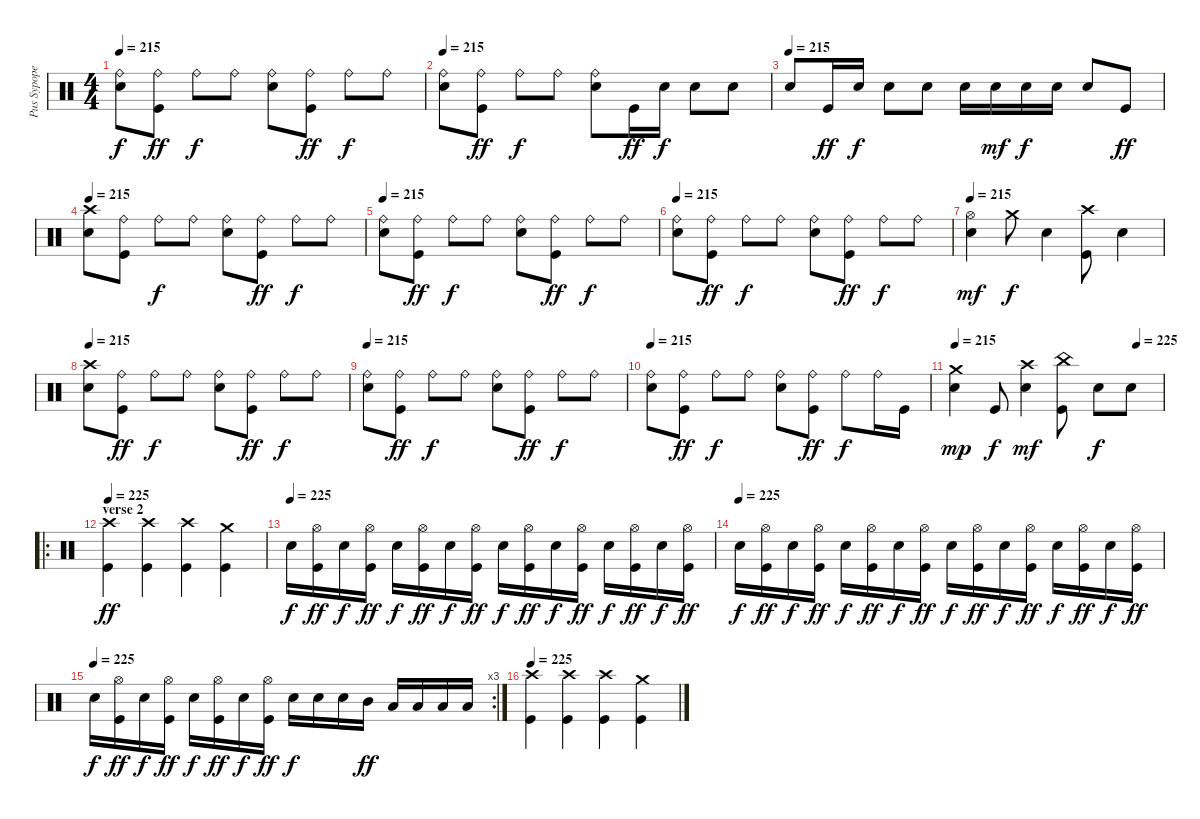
\track ("Pus Sypope" "Pus Sypope") {instrument percussion}
\staff {score}
\articulation defaults
\ts (4 4)
\tempo 215
\clef neutral
\ks c
("Ride (bell)" "Snare (hit) 2").8{dy f} ("Ride (bell)" "Kick (hit)").8{dy ff} "Ride (bell)".8{dy f} "Ride (bell)".8 ("Ride (bell)" "Snare (hit) 2").8 ("Ride (bell)" "Kick (hit)").8{dy ff} "Ride (bell)".8{dy f} "Ride (bell)".8 |
\tempo 215
("Ride (bell)" "Snare (hit) 2").8 ("Ride (bell)" "Kick (hit)").8{dy ff} "Ride (bell)".8{dy f} "Ride (bell)".8 ("Ride (bell)" "Snare (hit) 2").8 "Kick (hit)".16{dy ff} "Snare (hit) 2".16{dy f} "Snare (hit) 2".8 "Snare (hit) 2".8 |
\tempo (215)
"Snare (hit) 2".8 "Kick (hit)".16{dy ff} "Snare (hit) 2".16{dy f} "Snare (hit) 2".8 "Snare (hit) 2".8 "Snare (hit) 2".16 "Snare (hit) 2".16{dy mf} "Snare (hit) 2".16{dy f} "Snare (hit) 2".16 "Snare (hit) 2".8 "Kick (hit)".8{dy ff} |
\tempo 215
("Crash high (hit)" "Snare (hit) 2").8 ("Ride (bell)" "Kick (hit)").8 "Ride (bell)".8{dy f} "Ride (bell)".8 ("Ride (bell)" "Snare (hit) 2").8 ("Ride (bell)" "Kick (hit)").8{dy ff} "Ride (bell)".8{dy f} "Ride (bell)".8 |
\tempo 215
("Ride (bell)" "Snare (hit) 2").8 ("Ride (bell)" "Kick (hit)").8{dy ff} "Ride (bell)".8{dy f} "Ride (bell)".8 ("Ride (bell)" "Snare (hit) 2").8 ("Ride (bell)" "Kick (hit)").8{dy ff} "Ride (bell)".8{dy f} "Ride (bell)".8 |
\tempo 215
("Ride (bell)" "Snare (hit) 2").8 ("Ride (bell)" "Kick (hit)").8{dy ff} "Ride (bell)".8{dy f} "Ride (bell)".8 ("Ride (bell)" "Snare (hit) 2").8 ("Ride (bell)" "Kick (hit)").8{dy ff} "Ride (bell)".8{dy f} "Ride (bell)".8 |
\tempo 215
("Hi-Hat (open)" "Snare (hit) 2").4{dy mf} "Crash medium (hit)".8{dy f} "Snare (hit) 2".4 ("Crash high (hit)" "Kick (hit)").8 "Snare (hit) 2".4 |
\tempo 215
("Crash high (hit)" "Snare (hit) 2").8 ("Ride (bell)" "Kick (hit)").8{dy ff} "Ride (bell)".8{dy f} "Ride (bell)".8 ("Ride (bell)" "Snare (hit) 2").8 ("Ride (bell)" "Kick (hit)").8{dy ff} "Ride (bell)".8{dy f} "Ride (bell)".8 |
\tempo 215
("Ride (bell)" "Snare (hit) 2").8 ("Ride (bell)" "Kick (hit)").8{dy ff} "Ride (bell)".8{dy f} "Ride (bell)".8 ("Ride (bell)" "Snare (hit) 2").8 ("Ride (bell)" "Kick (hit)").8{dy ff} "Ride (bell)".8{dy f} "Ride (bell)".8 |
\tempo 215
("Ride (bell)" "Snare (hit) 2").8 ("Ride (bell)" "Kick (hit)").8{dy ff} "Ride (bell)".8{dy f} "Ride (bell)".8 ("Ride (bell)" "Snare (hit) 2").8 ("Ride (bell)" "Kick (hit)").8{dy ff} "Ride (bell)".8{dy f} "Ride (bell)".16 "Kick (hit)".16 |
\tempo 215
\tempo (225 0.875)
("Crash medium (hit)" "Snare (hit) 2").4{dy mp} "Kick (hit)".8{dy f} ("Crash high (hit)" "Snare (hit) 2").4{dy mf} ("China (hit)" "Kick (hit)").8 "Snare (hit) 2".8{dy f} "Snare (hit) 2".8 |
\ro
\section ("" "verse 2")
\tempo 225
("Crash high (hit)" "Kick (hit)").4{dy ff} ("Crash high (hit)" "Kick (hit)").4 ("Crash high (hit)" "Kick (hit)").4 ("Crash medium (hit)" "Kick (hit)").4 |
\tempo (225)
"Snare (hit) 2".16{dy f} ("Hi-Hat (open)" "Kick (hit)").16{dy ff} "Snare (hit) 2".16{dy f} ("Hi-Hat (open)" "Kick (hit)").16{dy ff} "Snare (hit) 2".16{dy f} ("Hi-Hat (open)" "Kick (hit)").16{dy ff} "Snare (hit) 2".16{dy f} ("Hi-Hat (open)" "Kick (hit)").16{dy ff} "Snare (hit) 2".16{dy f} ("Hi-Hat (open)" "Kick (hit)").16{dy ff} "Snare (hit) 2".16{dy f} ("Hi-Hat (open)" "Kick (hit)").16{dy ff} "Snare (hit) 2".16{dy f} ("Hi-Hat (open)" "Kick (hit)").16{dy ff} "Snare (hit) 2".16{dy f} ("Hi-Hat (open)" "Kick (hit)").16{dy ff} |
\tempo (225)
"Snare (hit) 2".16{dy f} ("Hi-Hat (open)" "Kick (hit)").16{dy ff} "Snare (hit) 2".16{dy f} ("Hi-Hat (open)" "Kick (hit)").16{dy ff} "Snare (hit) 2".16{dy f} ("Hi-Hat (open)" "Kick (hit)").16{dy ff} "Snare (hit) 2".16{dy f} ("Hi-Hat (open)" "Kick (hit)").16{dy ff} "Snare (hit) 2".16{dy f} ("Hi-Hat (open)" "Kick (hit)").16{dy ff} "Snare (hit) 2".16{dy f} ("Hi-Hat (open)" "Kick (hit)").16{dy ff} "Snare (hit) 2".16{dy f} ("Hi-Hat (open)" "Kick (hit)").16{dy ff} "Snare (hit) 2".16{dy f} ("Hi-Hat (open)" "Kick (hit)").16{dy ff} |
\rc 3
\tempo (225)
"Snare (hit) 2".16{dy f} ("Hi-Hat (open)" "Kick (hit)").16{dy ff} "Snare (hit) 2".16{dy f} ("Hi-Hat (open)" "Kick (hit)").16{dy ff} "Snare (hit) 2".16{dy f} ("Hi-Hat (open)" "Kick (hit)").16{dy ff} "Snare (hit) 2".16{dy f} ("Hi-Hat (open)" "Kick (hit)").16{dy ff} "Snare (hit) 2".16{dy f} "Snare (hit) 2".16 "Snare (hit) 2".16 "Mid Tom (hit)".16{dy ff} "Low Tom (hit)".16 "Low Tom (hit)".16 "Low Tom (hit)".16 "Low Tom (hit)".16 |
\tempo 225
("Crash high (hit)" "Kick (hit)").4 ("Crash high (hit)" "Kick (hit)").4 ("Crash high (hit)" "Kick (hit)").4 ("Crash medium (hit)" "Kick (hit)").4
